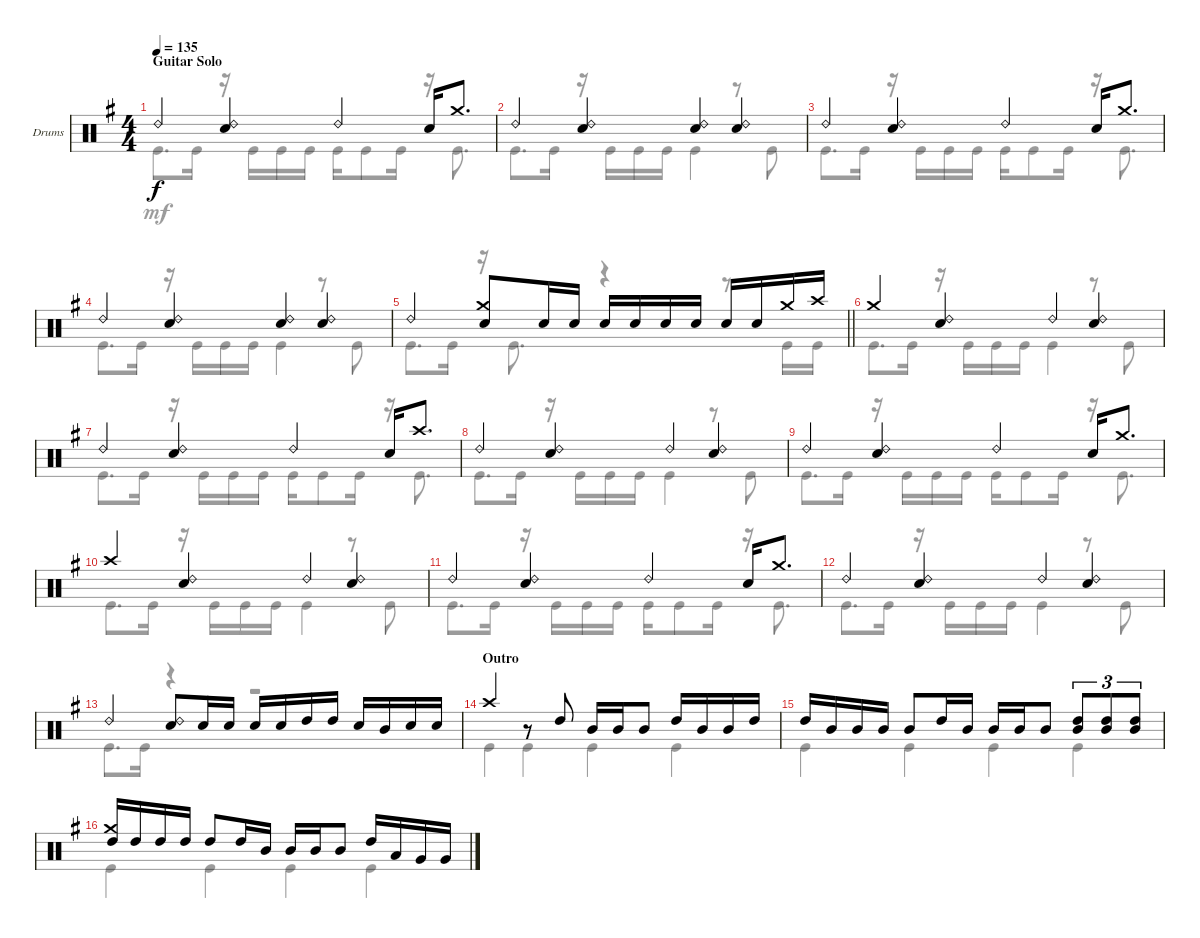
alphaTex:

\defaultSystemsLayout 4
\bracketExtendMode groupsimilarinstruments
\firstSystemTrackNameOrientation horizontal
\otherSystemsTrackNameOrientation horizontal
\track ("Drumkit" "Drums") {instrument percussion}
\staff {score}
\articulation defaults
\voice
\ts (4 4)
\section ("" "Guitar Solo ")
\tempo 135
\clef neutral
\ks g "Ride (bell) 2".4{dy f}
("Ride (bell) 2" "Snare (hit) 2").4 "Ride (bell) 2".4 "Snare (hit) 2".16 "Crash medium (hit)".8{d} |
"Ride (bell) 2".4 ("Ride (bell) 2" "Snare (hit) 2").4 ("Ride (bell) 2" "Snare (hit) 2").4 ("Ride (bell) 2" "Snare (hit) 2").4 |
"Ride (bell) 2".4 ("Ride (bell) 2" "Snare (hit) 2").4 "Ride (bell) 2".4 "Snare (hit) 2".16 "Crash medium (hit)".8{d} |
"Ride (bell) 2".4 ("Ride (bell) 2" "Snare (hit) 2").4 ("Ride (bell) 2" "Snare (hit) 2").4 ("Ride (bell) 2" "Snare (hit) 2").4 |
\barLineRight lightlight "Ride (bell) 2".4
("Crash medium (hit)" "Snare (hit) 2").8 "Snare (hit) 2".16 "Snare (hit) 2".16 "Snare (hit) 2".16 "Snare (hit) 2".16 "Snare (hit) 2".16 "Snare (hit) 2".16 "Snare (hit) 2".16 "Snare (hit) 2".16 "Crash medium (hit)".16 "Crash high (hit)".16 |
"Crash medium (hit)".4 ("Ride (bell) 2" "Snare (hit) 2").4 "Ride (bell) 2".4 ("Ride (bell) 2" "Snare (hit) 2").4 |
"Ride (bell) 2".4 ("Ride (bell) 2" "Snare (hit) 2").4 "Ride (bell) 2".4 "Snare (hit) 2".16 "Crash high (hit)".8{d} |
"Ride (bell) 2".4 ("Ride (bell) 2" "Snare (hit) 2").4 "Ride (bell) 2".4 ("Ride (bell) 2" "Snare (hit) 2").4 |
"Ride (bell) 2".4 ("Ride (bell) 2" "Snare (hit) 2").4 "Ride (bell) 2".4 "Snare (hit) 2".16 "Crash medium (hit)".8{d} |
"Crash high (hit)".4 ("Ride (bell) 2" "Snare (hit) 2").4 "Ride (bell) 2".4 ("Ride (bell) 2" "Snare (hit) 2").4 |
"Ride (bell) 2".4 ("Ride (bell) 2" "Snare (hit) 2").4 "Ride (bell) 2".4 "Snare (hit) 2".16 "Crash medium (hit)".8{d} |
"Ride (bell) 2".4 ("Ride (bell) 2" "Snare (hit) 2").4 "Ride (bell) 2".4 ("Ride (bell) 2" "Snare (hit) 2").4 |
"Ride (bell) 2".4 ("Ride (bell) 2" "Snare (hit) 2").8 "Snare (hit) 2".16 "Snare (hit) 2".16 "Snare (hit) 2".16 "Snare (hit) 2".16 "High Tom (hit)".16 "High Tom (hit)".16 "Snare (hit) 2".16 "Mid Tom (hit)".16 "Snare (hit) 2".16 "Snare (hit) 2".16 |
\section ("" "Outro")
"Crash high (hit)".4 r.8 "High Tom (hit)".8 "Mid Tom (hit)".16 "Mid Tom (hit)".16 "Mid Tom (hit)".8 "High Tom (hit)".16 "Mid Tom (hit)".16 "Mid Tom (hit)".16 "High Tom (hit)".16 |
"High Tom (hit)".16 "Mid Tom (hit)".16 "Mid Tom (hit)".16 "Mid Tom (hit)".16 "Mid Tom (hit)".8 "High Tom (hit)".16 "Mid Tom (hit)".16 "Mid Tom (hit)".16 "Mid Tom (hit)".16 "Mid Tom (hit)".8 ("Mid Tom (hit)" "High Tom (hit)").8{tu (3 2)} ("Mid Tom (hit)" "High Tom (hit)").8{tu (3 2)} ("Mid Tom (hit)" "High Tom (hit)").8{tu (3 2)} |
("Crash medium (hit)" "High Tom (hit)").16 "High Tom (hit)".16 "High Tom (hit)".16 "High Tom (hit)".16 "High Tom (hit)".8 "High Tom (hit)".16 "Mid Tom (hit)".16 "Mid Tom (hit)".16 "Mid Tom (hit)".16 "Mid Tom (hit)".8 "High Tom (hit)".16 "Low Tom (hit)".16 "Very Low Tom (hit)".16 "Very Low Tom (hit)".16
\voice
\clef neutral
\ottava regular
\simile none
\ks g "Kick (hit)".8{d dy mf} "Kick (hit)".16
r.16 "Kick (hit)".16 "Kick (hit)".16 "Kick (hit)".16 "Kick (hit)".16 "Kick (hit)".8 "Kick (hit)".16 r.16 "Kick (hit)".8{d} |
"Kick (hit)".8{d} "Kick (hit)".16 r.16 "Kick (hit)".16 "Kick (hit)".16 "Kick (hit)".16 "Kick (hit)".4 r.8 "Kick (hit)".8 |
"Kick (hit)".8{d} "Kick (hit)".16 r.16 "Kick (hit)".16 "Kick (hit)".16 "Kick (hit)".16 "Kick (hit)".16 "Kick (hit)".8 "Kick (hit)".16 r.16 "Kick (hit)".8{d} |
"Kick (hit)".8{d} "Kick (hit)".16 r.16 "Kick (hit)".16 "Kick (hit)".16 "Kick (hit)".16 "Kick (hit)".4 r.8 "Kick (hit)".8 |
\barLineRight lightlight "Kick (hit)".8{d} "Kick (hit)".16
r.16 "Kick (hit)".8{d} r.4 r.8 "Kick (hit)".16 "Kick (hit)".16 |
"Kick (hit)".8{d} "Kick (hit)".16 r.16 "Kick (hit)".16 "Kick (hit)".16 "Kick (hit)".16 "Kick (hit)".4 r.8 "Kick (hit)".8 |
"Kick (hit)".8{d} "Kick (hit)".16 r.16 "Kick (hit)".16 "Kick (hit)".16 "Kick (hit)".16 "Kick (hit)".16 "Kick (hit)".8 "Kick (hit)".16 r.16 "Kick (hit)".8{d} |
"Kick (hit)".8{d} "Kick (hit)".16 r.16 "Kick (hit)".16 "Kick (hit)".16 "Kick (hit)".16 "Kick (hit)".4 r.8 "Kick (hit)".8 |
"Kick (hit)".8{d} "Kick (hit)".16 r.16 "Kick (hit)".16 "Kick (hit)".16 "Kick (hit)".16 "Kick (hit)".16 "Kick (hit)".8 "Kick (hit)".16 r.16 "Kick (hit)".8{d} |
"Kick (hit)".8{d} "Kick (hit)".16 r.16 "Kick (hit)".16 "Kick (hit)".16 "Kick (hit)".16 "Kick (hit)".4 r.8 "Kick (hit)".8 |
"Kick (hit)".8{d} "Kick (hit)".16 r.16 "Kick (hit)".16 "Kick (hit)".16 "Kick (hit)".16 "Kick (hit)".16 "Kick (hit)".8 "Kick (hit)".16 r.16 "Kick (hit)".8{d} |
"Kick (hit)".8{d} "Kick (hit)".16 r.16 "Kick (hit)".16 "Kick (hit)".16 "Kick (hit)".16 "Kick (hit)".4 r.8 "Kick (hit)".8 |
"Kick (hit)".8{d} "Kick (hit)".16 r.4 r.2 |
"Kick (hit)".4 "Kick (hit)".4 "Kick (hit)".4 "Kick (hit)".4 |
"Kick (hit)".4 "Kick (hit)".4 "Kick (hit)".4 "Kick (hit)".4 |
"Kick (hit)".4 "Kick (hit)".4 "Kick (hit)".4 "Kick (hit)".4
